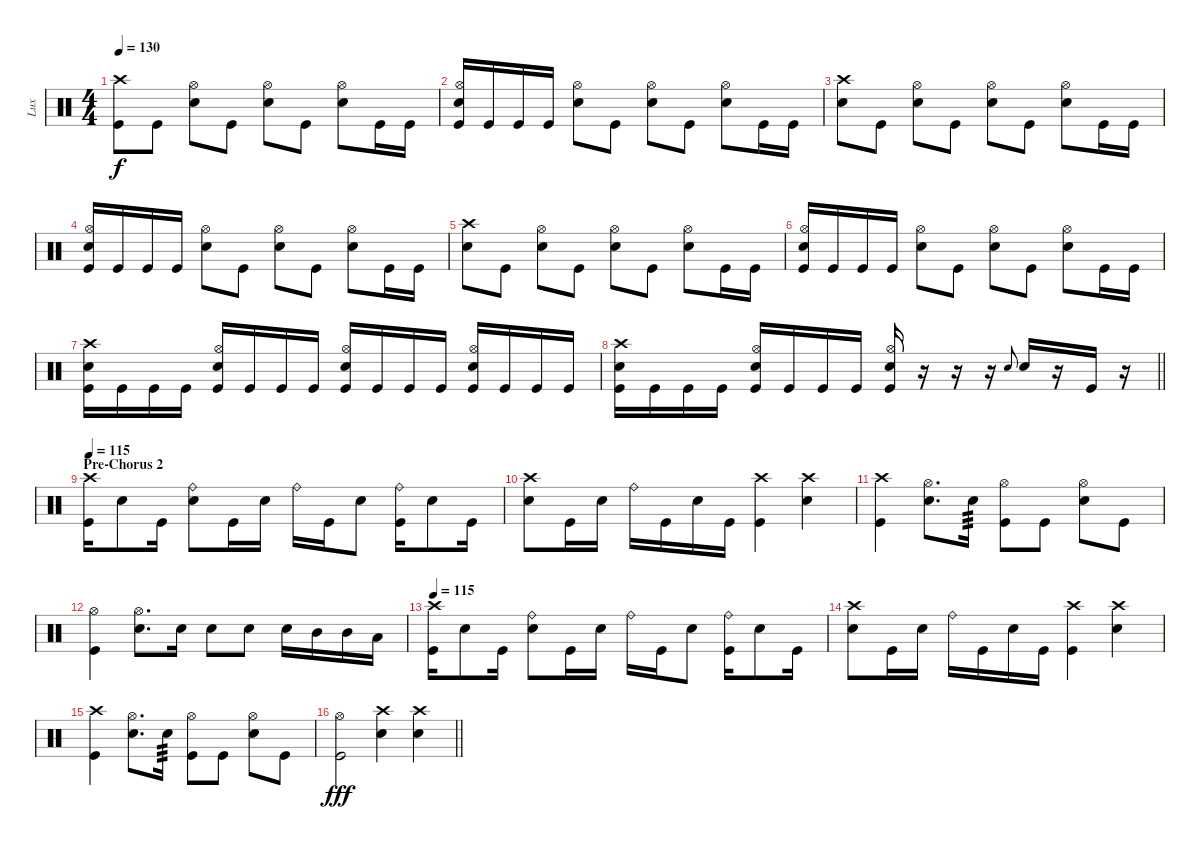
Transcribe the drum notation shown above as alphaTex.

\track ("Lux" "Lux") {instrument percussion}
\staff {score}
\articulation defaults
\ts (4 4)
\tempo 130
\clef neutral
\ks c
("Crash high (hit)" "Kick (hit)").8{dy f} "Kick (hit)".8 ("Hi-Hat (open)" "Snare (hit) 2").8 "Kick (hit)".8 ("Hi-Hat (open)" "Snare (hit) 2").8 "Kick (hit)".8 ("Hi-Hat (open)" "Snare (hit) 2").8 "Kick (hit)".16 "Kick (hit)".16 |
("Hi-Hat (open)" "Snare (hit) 2" "Kick (hit)").16 "Kick (hit)".16 "Kick (hit)".16 "Kick (hit)".16 ("Hi-Hat (open)" "Snare (hit) 2").8 "Kick (hit)".8 ("Hi-Hat (open)" "Snare (hit) 2").8 "Kick (hit)".8 ("Hi-Hat (open)" "Snare (hit) 2").8 "Kick (hit)".16 "Kick (hit)".16 |
("Crash high (hit)" "Snare (hit) 2").8 "Kick (hit)".8 ("Hi-Hat (open)" "Snare (hit) 2").8 "Kick (hit)".8 ("Hi-Hat (open)" "Snare (hit) 2").8 "Kick (hit)".8 ("Hi-Hat (open)" "Snare (hit) 2").8 "Kick (hit)".16 "Kick (hit)".16 |
("Hi-Hat (open)" "Snare (hit) 2" "Kick (hit)").16 "Kick (hit)".16 "Kick (hit)".16 "Kick (hit)".16 ("Hi-Hat (open)" "Snare (hit) 2").8 "Kick (hit)".8 ("Hi-Hat (open)" "Snare (hit) 2").8 "Kick (hit)".8 ("Hi-Hat (open)" "Snare (hit) 2").8 "Kick (hit)".16 "Kick (hit)".16 |
("Crash high (hit)" "Snare (hit) 2").8 "Kick (hit)".8 ("Hi-Hat (open)" "Snare (hit) 2").8 "Kick (hit)".8 ("Hi-Hat (open)" "Snare (hit) 2").8 "Kick (hit)".8 ("Hi-Hat (open)" "Snare (hit) 2").8 "Kick (hit)".16 "Kick (hit)".16 |
("Hi-Hat (open)" "Snare (hit) 2" "Kick (hit)").16 "Kick (hit)".16 "Kick (hit)".16 "Kick (hit)".16 ("Hi-Hat (open)" "Snare (hit) 2").8 "Kick (hit)".8 ("Hi-Hat (open)" "Snare (hit) 2").8 "Kick (hit)".8 ("Hi-Hat (open)" "Snare (hit) 2").8 "Kick (hit)".16 "Kick (hit)".16 |
("Crash high (hit)" "Snare (hit) 2" "Kick (hit)").16 "Kick (hit)".16 "Kick (hit)".16 "Kick (hit)".16 ("Hi-Hat (open)" "Snare (hit) 2" "Kick (hit)").16 "Kick (hit)".16 "Kick (hit)".16 "Kick (hit)".16 ("Hi-Hat (open)" "Snare (hit) 2" "Kick (hit)").16 "Kick (hit)".16 "Kick (hit)".16 "Kick (hit)".16 ("Hi-Hat (open)" "Snare (hit) 2" "Kick (hit)").16 "Kick (hit)".16 "Kick (hit)".16 "Kick (hit)".16 |
\barLineRight lightlight
("Crash high (hit)" "Snare (hit) 2" "Kick (hit)").16 "Kick (hit)".16 "Kick (hit)".16 "Kick (hit)".16 ("Hi-Hat (open)" "Snare (hit) 2" "Kick (hit)").16 "Kick (hit)".16 "Kick (hit)".16 "Kick (hit)".16 ("Hi-Hat (open)" "Snare (hit) 2" "Kick (hit)").16 r.16 r.16 r.16 "Snare (hit) 2".8{gr onbeat} "Snare (hit) 2".16 r.16 "Kick (hit)".16 r.16 |
\section ("" "Pre-Chorus 2")
\tempo 115
("Crash high (hit)" "Kick (hit)").16 "Snare (hit) 2".8 "Kick (hit)".16 ("Ride (bell)" "Snare (hit) 2").8 "Kick (hit)".16 "Snare (hit) 2".16 "Ride (bell)".16 "Kick (hit)".16 "Snare (hit) 2".8 ("Ride (bell)" "Kick (hit)").16 "Snare (hit) 2".8 "Kick (hit)".16 |
("Crash high (hit)" "Snare (hit) 2").8 "Kick (hit)".16 "Snare (hit) 2".16 "Ride (bell)".16 "Kick (hit)".16 "Snare (hit) 2".16 "Kick (hit)".16 ("Crash high (hit)" "Kick (hit)").4 ("Crash high (hit)" "Snare (hit) 2").4 |
("Crash high (hit)" "Kick (hit)").4 ("Hi-Hat (open)" "Snare (hit) 2").8{d} "Snare (hit) 2".16{tp 3} ("Hi-Hat (open)" "Kick (hit)").8 "Kick (hit)".8 ("Hi-Hat (open)" "Snare (hit) 2").8 "Kick (hit)".8 |
("Hi-Hat (open)" "Kick (hit)").4 ("Hi-Hat (open)" "Snare (hit) 2").8{d} "Snare (hit) 2".16 "Snare (hit) 2".8 "Snare (hit) 2".8 "Snare (hit) 2".16 "Mid Tom (hit)".16 "Mid Tom (hit)".16 "Low Tom (hit)".16 |
\tempo 115
("Crash high (hit)" "Kick (hit)").16 "Snare (hit) 2".8 "Kick (hit)".16 ("Ride (bell)" "Snare (hit) 2").8 "Kick (hit)".16 "Snare (hit) 2".16 "Ride (bell)".16 "Kick (hit)".16 "Snare (hit) 2".8 ("Ride (bell)" "Kick (hit)").16 "Snare (hit) 2".8 "Kick (hit)".16 |
("Crash high (hit)" "Snare (hit) 2").8 "Kick (hit)".16 "Snare (hit) 2".16 "Ride (bell)".16 "Kick (hit)".16 "Snare (hit) 2".16 "Kick (hit)".16 ("Crash high (hit)" "Kick (hit)").4 ("Crash high (hit)" "Snare (hit) 2").4 |
("Crash high (hit)" "Kick (hit)").4 ("Hi-Hat (open)" "Snare (hit) 2").8{d} "Snare (hit) 2".16{tp 3} ("Hi-Hat (open)" "Kick (hit)").8 "Kick (hit)".8 ("Hi-Hat (open)" "Snare (hit) 2").8 "Kick (hit)".8 |
\barLineRight lightlight
("Hi-Hat (open)" "Kick (hit)").2{dy fff} ("Crash high (hit)" "Snare (hit) 2").4 ("Crash high (hit)" "Snare (hit) 2").4
